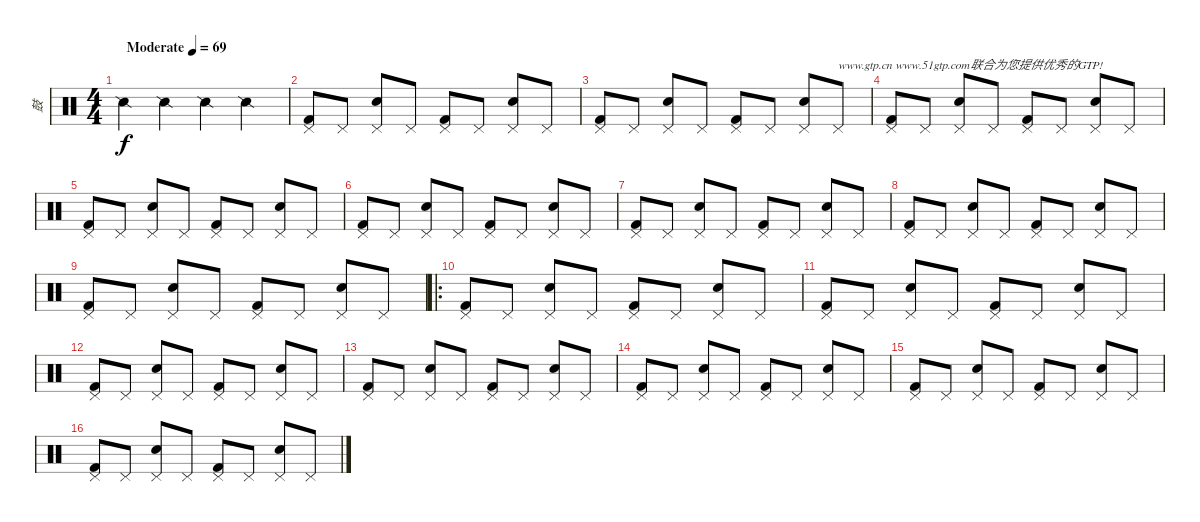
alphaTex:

\track ("鼓" "鼓") {instrument percussion}
\staff {score}
\articulation defaults
\ts (4 4)
\tempo (69 "Moderate")
\clef neutral
\ks c "Snare (side stick) 2".4{dy f} "Snare (side stick) 2".4 "Snare (side stick) 2".4 "Snare (side stick) 2".4
|
("Pedal Hi-Hat (hit)" "Kick (hit) 2").8 "Pedal Hi-Hat (hit)".8 ("Pedal Hi-Hat (hit)" "Electric Snare (hit)").8 "Pedal Hi-Hat (hit)".8 ("Pedal Hi-Hat (hit)" "Kick (hit) 2").8 "Pedal Hi-Hat (hit)".8 ("Pedal Hi-Hat (hit)" "Electric Snare (hit)").8 "Pedal Hi-Hat (hit)".8 |
("Pedal Hi-Hat (hit)" "Kick (hit) 2").8 "Pedal Hi-Hat (hit)".8 ("Pedal Hi-Hat (hit)" "Electric Snare (hit)").8 "Pedal Hi-Hat (hit)".8 ("Pedal Hi-Hat (hit)" "Kick (hit) 2").8 "Pedal Hi-Hat (hit)".8 ("Pedal Hi-Hat (hit)" "Electric Snare (hit)").8 "Pedal Hi-Hat (hit)".8{txt "www.gtp.cn www.51gtp.com联合为您提供优秀的GTP!"} |
("Pedal Hi-Hat (hit)" "Kick (hit) 2").8 "Pedal Hi-Hat (hit)".8 ("Pedal Hi-Hat (hit)" "Electric Snare (hit)").8 "Pedal Hi-Hat (hit)".8 ("Pedal Hi-Hat (hit)" "Kick (hit) 2").8 "Pedal Hi-Hat (hit)".8 ("Pedal Hi-Hat (hit)" "Electric Snare (hit)").8 "Pedal Hi-Hat (hit)".8 |
("Pedal Hi-Hat (hit)" "Kick (hit) 2").8 "Pedal Hi-Hat (hit)".8 ("Pedal Hi-Hat (hit)" "Electric Snare (hit)").8 "Pedal Hi-Hat (hit)".8 ("Pedal Hi-Hat (hit)" "Kick (hit) 2").8 "Pedal Hi-Hat (hit)".8 ("Pedal Hi-Hat (hit)" "Electric Snare (hit)").8 "Pedal Hi-Hat (hit)".8 |
("Pedal Hi-Hat (hit)" "Kick (hit) 2").8 "Pedal Hi-Hat (hit)".8 ("Pedal Hi-Hat (hit)" "Electric Snare (hit)").8 "Pedal Hi-Hat (hit)".8 ("Pedal Hi-Hat (hit)" "Kick (hit) 2").8 "Pedal Hi-Hat (hit)".8 ("Pedal Hi-Hat (hit)" "Electric Snare (hit)").8 "Pedal Hi-Hat (hit)".8 |
("Pedal Hi-Hat (hit)" "Kick (hit) 2").8 "Pedal Hi-Hat (hit)".8 ("Pedal Hi-Hat (hit)" "Electric Snare (hit)").8 "Pedal Hi-Hat (hit)".8 ("Pedal Hi-Hat (hit)" "Kick (hit) 2").8 "Pedal Hi-Hat (hit)".8 ("Pedal Hi-Hat (hit)" "Electric Snare (hit)").8 "Pedal Hi-Hat (hit)".8 |
("Pedal Hi-Hat (hit)" "Kick (hit) 2").8 "Pedal Hi-Hat (hit)".8 ("Pedal Hi-Hat (hit)" "Electric Snare (hit)").8 "Pedal Hi-Hat (hit)".8 ("Pedal Hi-Hat (hit)" "Kick (hit) 2").8 "Pedal Hi-Hat (hit)".8 ("Pedal Hi-Hat (hit)" "Electric Snare (hit)").8 "Pedal Hi-Hat (hit)".8 |
("Pedal Hi-Hat (hit)" "Kick (hit) 2").8 "Pedal Hi-Hat (hit)".8 ("Pedal Hi-Hat (hit)" "Electric Snare (hit)").8 "Pedal Hi-Hat (hit)".8 ("Pedal Hi-Hat (hit)" "Kick (hit) 2").8 "Pedal Hi-Hat (hit)".8 ("Pedal Hi-Hat (hit)" "Electric Snare (hit)").8 "Pedal Hi-Hat (hit)".8 |
\ro
("Pedal Hi-Hat (hit)" "Kick (hit) 2").8 "Pedal Hi-Hat (hit)".8 ("Pedal Hi-Hat (hit)" "Electric Snare (hit)").8 "Pedal Hi-Hat (hit)".8 ("Pedal Hi-Hat (hit)" "Kick (hit) 2").8 "Pedal Hi-Hat (hit)".8 ("Pedal Hi-Hat (hit)" "Electric Snare (hit)").8 "Pedal Hi-Hat (hit)".8 |
("Pedal Hi-Hat (hit)" "Kick (hit) 2").8 "Pedal Hi-Hat (hit)".8 ("Pedal Hi-Hat (hit)" "Electric Snare (hit)").8 "Pedal Hi-Hat (hit)".8 ("Pedal Hi-Hat (hit)" "Kick (hit) 2").8 "Pedal Hi-Hat (hit)".8 ("Pedal Hi-Hat (hit)" "Electric Snare (hit)").8 "Pedal Hi-Hat (hit)".8 |
("Pedal Hi-Hat (hit)" "Kick (hit) 2").8 "Pedal Hi-Hat (hit)".8 ("Pedal Hi-Hat (hit)" "Electric Snare (hit)").8 "Pedal Hi-Hat (hit)".8 ("Pedal Hi-Hat (hit)" "Kick (hit) 2").8 "Pedal Hi-Hat (hit)".8 ("Pedal Hi-Hat (hit)" "Electric Snare (hit)").8 "Pedal Hi-Hat (hit)".8 |
("Pedal Hi-Hat (hit)" "Kick (hit) 2").8 "Pedal Hi-Hat (hit)".8 ("Pedal Hi-Hat (hit)" "Electric Snare (hit)").8 "Pedal Hi-Hat (hit)".8 ("Pedal Hi-Hat (hit)" "Kick (hit) 2").8 "Pedal Hi-Hat (hit)".8 ("Pedal Hi-Hat (hit)" "Electric Snare (hit)").8 "Pedal Hi-Hat (hit)".8 |
("Pedal Hi-Hat (hit)" "Kick (hit) 2").8 "Pedal Hi-Hat (hit)".8 ("Pedal Hi-Hat (hit)" "Electric Snare (hit)").8 "Pedal Hi-Hat (hit)".8 ("Pedal Hi-Hat (hit)" "Kick (hit) 2").8 "Pedal Hi-Hat (hit)".8 ("Pedal Hi-Hat (hit)" "Electric Snare (hit)").8 "Pedal Hi-Hat (hit)".8 |
("Pedal Hi-Hat (hit)" "Kick (hit) 2").8 "Pedal Hi-Hat (hit)".8 ("Pedal Hi-Hat (hit)" "Electric Snare (hit)").8 "Pedal Hi-Hat (hit)".8 ("Pedal Hi-Hat (hit)" "Kick (hit) 2").8 "Pedal Hi-Hat (hit)".8 ("Pedal Hi-Hat (hit)" "Electric Snare (hit)").8 "Pedal Hi-Hat (hit)".8 |
("Pedal Hi-Hat (hit)" "Kick (hit) 2").8 "Pedal Hi-Hat (hit)".8 ("Pedal Hi-Hat (hit)" "Electric Snare (hit)").8 "Pedal Hi-Hat (hit)".8 ("Pedal Hi-Hat (hit)" "Kick (hit) 2").8 "Pedal Hi-Hat (hit)".8 ("Pedal Hi-Hat (hit)" "Electric Snare (hit)").8 "Pedal Hi-Hat (hit)".8
